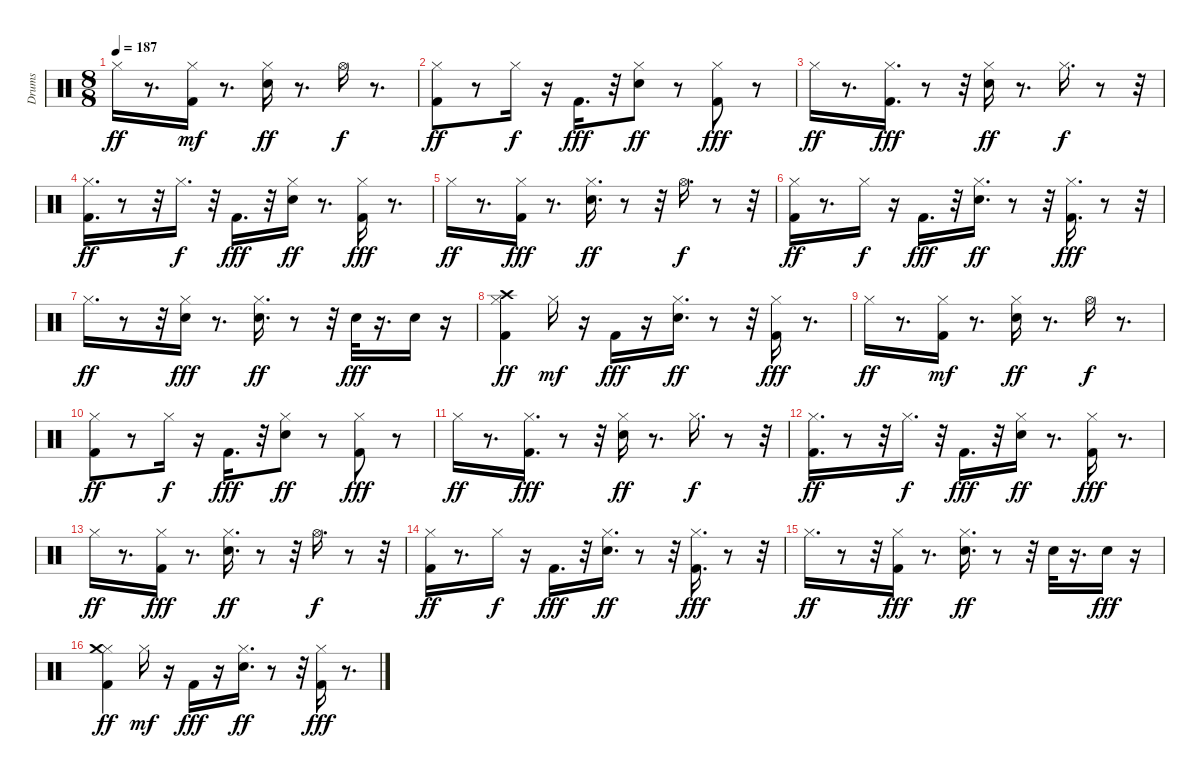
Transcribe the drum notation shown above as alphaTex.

\track ("Drums" "Drums") {instrument percussion}
\staff {score}
\articulation defaults
\ts (8 8)
\tempo 187
\clef neutral
\ks c "Hi-Hat (closed)".16{dy ff}
r.8{d} ("Kick (hit) 2" "Hi-Hat (closed)").16{dy mf} r.8{d} ("Snare (hit) 2" "Hi-Hat (closed)").16{dy ff} r.8{d} "Hi-Hat (open)".16{dy f} r.8{d} |
("Kick (hit) 2" "Hi-Hat (closed)").8{dy ff} r.8 "Hi-Hat (closed)".16{dy f} r.16 "Kick (hit) 2".16{d dy fff} r.32 ("Snare (hit) 2" "Hi-Hat (closed)").8{dy ff} r.8 ("Kick (hit) 2" "Hi-Hat (closed)").8{dy fff} r.8 |
"Hi-Hat (closed)".16{dy ff} r.8{d} ("Kick (hit) 2" "Hi-Hat (closed)").16{d dy fff} r.8 r.32 ("Snare (hit) 2" "Hi-Hat (closed)").16{dy ff} r.8{d} "Hi-Hat (closed)".16{d dy f} r.8 r.32 |
("Kick (hit) 2" "Hi-Hat (closed)").16{d dy ff} r.8 r.32 "Hi-Hat (closed)".16{d dy f} r.32 "Kick (hit) 2".16{d dy fff} r.32 ("Snare (hit) 2" "Hi-Hat (closed)").16{dy ff} r.8{d} ("Kick (hit) 2" "Hi-Hat (closed)").16{dy fff} r.8{d} |
"Hi-Hat (closed)".16{dy ff} r.8{d} ("Kick (hit) 2" "Hi-Hat (closed)").16{dy fff} r.8{d} ("Snare (hit) 2" "Hi-Hat (closed)").16{d dy ff} r.8 r.32 "Hi-Hat (open)".16{d dy f} r.8 r.32 |
("Kick (hit) 2" "Hi-Hat (closed)").16{dy ff} r.8{d} "Hi-Hat (closed)".16{dy f} r.16 "Kick (hit) 2".16{d dy fff} r.32 ("Snare (hit) 2" "Hi-Hat (closed)").16{d dy ff} r.8 r.32 ("Kick (hit) 2" "Hi-Hat (closed)").16{d dy fff} r.8 r.32 |
"Hi-Hat (closed)".16{d dy ff} r.8 r.32 ("Snare (hit) 2" "Hi-Hat (closed)").16{dy fff} r.8{d} ("Snare (hit) 2" "Hi-Hat (closed)").16{d dy ff} r.8 r.32 "Snare (hit) 2".32{dy fff} r.16{d} "Snare (hit) 2".16 r.16 |
("Kick (hit) 2" "Hi-Hat (closed)" "Crash high (hit)").4{dy ff} "Hi-Hat (closed)".16{dy mf} r.16 "Kick (hit) 2".16{dy fff} r.16 ("Snare (hit) 2" "Hi-Hat (closed)").16{d dy ff} r.8 r.32 ("Kick (hit) 2" "Hi-Hat (closed)").16{dy fff} r.8{d} |
"Hi-Hat (closed)".16{dy ff} r.8{d} ("Kick (hit) 2" "Hi-Hat (closed)").16{dy mf} r.8{d} ("Snare (hit) 2" "Hi-Hat (closed)").16{dy ff} r.8{d} "Hi-Hat (open)".16{dy f} r.8{d} |
("Kick (hit) 2" "Hi-Hat (closed)").8{dy ff} r.8 "Hi-Hat (closed)".16{dy f} r.16 "Kick (hit) 2".16{d dy fff} r.32 ("Snare (hit) 2" "Hi-Hat (closed)").8{dy ff} r.8 ("Kick (hit) 2" "Hi-Hat (closed)").8{dy fff} r.8 |
"Hi-Hat (closed)".16{dy ff} r.8{d} ("Kick (hit) 2" "Hi-Hat (closed)").16{d dy fff} r.8 r.32 ("Snare (hit) 2" "Hi-Hat (closed)").16{dy ff} r.8{d} "Hi-Hat (closed)".16{d dy f} r.8 r.32 |
("Kick (hit) 2" "Hi-Hat (closed)").16{d dy ff} r.8 r.32 "Hi-Hat (closed)".16{d dy f} r.32 "Kick (hit) 2".16{d dy fff} r.32 ("Snare (hit) 2" "Hi-Hat (closed)").16{dy ff} r.8{d} ("Kick (hit) 2" "Hi-Hat (closed)").16{dy fff} r.8{d} |
"Hi-Hat (closed)".16{dy ff} r.8{d} ("Kick (hit) 2" "Hi-Hat (closed)").16{dy fff} r.8{d} ("Snare (hit) 2" "Hi-Hat (closed)").16{d dy ff} r.8 r.32 "Hi-Hat (open)".16{d dy f} r.8 r.32 |
("Kick (hit) 2" "Hi-Hat (closed)").16{dy ff} r.8{d} "Hi-Hat (closed)".16{dy f} r.16 "Kick (hit) 2".16{d dy fff} r.32 ("Snare (hit) 2" "Hi-Hat (closed)").16{d dy ff} r.8 r.32 ("Kick (hit) 2" "Hi-Hat (closed)").16{d dy fff} r.8 r.32 |
"Hi-Hat (closed)".16{d dy ff} r.8 r.32 ("Kick (hit) 2" "Hi-Hat (closed)").16{dy fff} r.8{d} ("Snare (hit) 2" "Hi-Hat (closed)").16{d dy ff} r.8 r.32 "Snare (hit) 2".32 r.16{d} "Snare (hit) 2".16{dy fff} r.16 |
("Kick (hit) 2" "Hi-Hat (closed)" "Crash medium (hit)").4{dy ff} "Hi-Hat (closed)".16{dy mf} r.16 "Kick (hit) 2".16{dy fff} r.16 ("Snare (hit) 2" "Hi-Hat (closed)").16{d dy ff} r.8 r.32 ("Kick (hit) 2" "Hi-Hat (closed)").16{dy fff} r.8{d}
